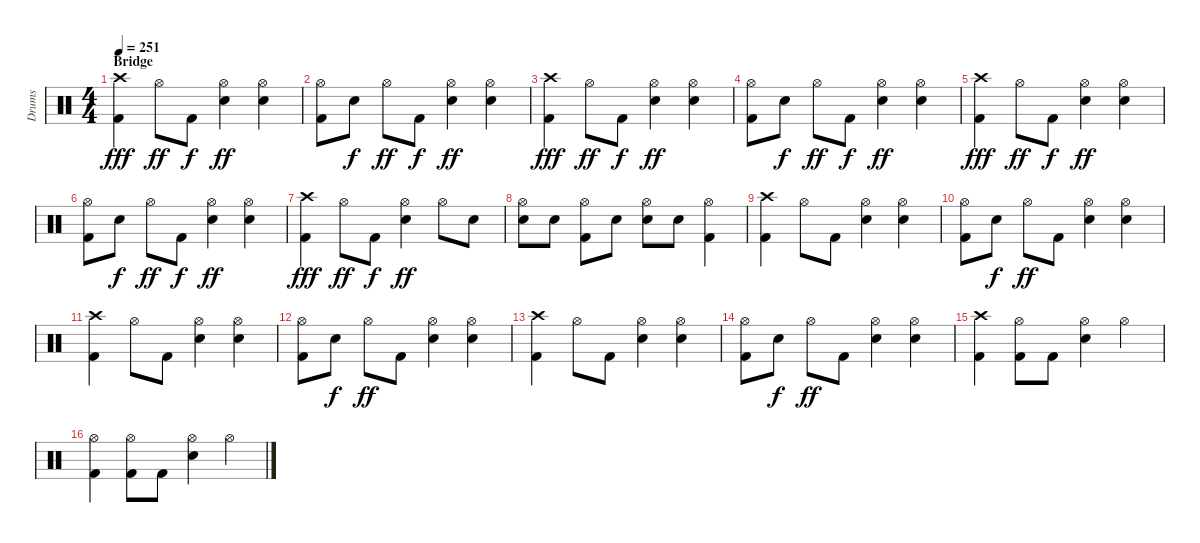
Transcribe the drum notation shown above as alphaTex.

\track ("Drums" "Drums") {instrument percussion}
\staff {score}
\articulation defaults
\ts (4 4)
\section ("" "Bridge")
\tempo 251
\clef neutral
\ks c
("Crash high (hit)" "Kick (hit) 2").4{dy fff} "Hi-Hat (open)".8{dy ff} "Kick (hit) 2".8{dy f} ("Hi-Hat (open)" "Electric Snare (hit)").4{dy ff} ("Hi-Hat (open)" "Electric Snare (hit)").4 |
("Hi-Hat (open)" "Kick (hit) 2").8 "Electric Snare (hit)".8{dy f} "Hi-Hat (open)".8{dy ff} "Kick (hit) 2".8{dy f} ("Hi-Hat (open)" "Electric Snare (hit)").4{dy ff} ("Hi-Hat (open)" "Electric Snare (hit)").4 |
("Crash high (hit)" "Kick (hit) 2").4{dy fff} "Hi-Hat (open)".8{dy ff} "Kick (hit) 2".8{dy f} ("Hi-Hat (open)" "Electric Snare (hit)").4{dy ff} ("Hi-Hat (open)" "Electric Snare (hit)").4 |
("Hi-Hat (open)" "Kick (hit) 2").8 "Electric Snare (hit)".8{dy f} "Hi-Hat (open)".8{dy ff} "Kick (hit) 2".8{dy f} ("Hi-Hat (open)" "Electric Snare (hit)").4{dy ff} ("Hi-Hat (open)" "Electric Snare (hit)").4 |
("Crash high (hit)" "Kick (hit) 2").4{dy fff} "Hi-Hat (open)".8{dy ff} "Kick (hit) 2".8{dy f} ("Hi-Hat (open)" "Electric Snare (hit)").4{dy ff} ("Hi-Hat (open)" "Electric Snare (hit)").4 |
("Hi-Hat (open)" "Kick (hit) 2").8 "Electric Snare (hit)".8{dy f} "Hi-Hat (open)".8{dy ff} "Kick (hit) 2".8{dy f} ("Hi-Hat (open)" "Electric Snare (hit)").4{dy ff} ("Hi-Hat (open)" "Electric Snare (hit)").4 |
("Crash high (hit)" "Kick (hit) 2").4{dy fff} "Hi-Hat (open)".8{dy ff} "Kick (hit) 2".8{dy f} ("Hi-Hat (open)" "Electric Snare (hit)").4{dy ff} "Hi-Hat (open)".8 "Electric Snare (hit)".8 |
("Hi-Hat (open)" "Electric Snare (hit)").8 "Electric Snare (hit)".8 ("Hi-Hat (open)" "Kick (hit) 2").8 "Electric Snare (hit)".8 ("Hi-Hat (open)" "Electric Snare (hit)").8 "Electric Snare (hit)".8 ("Hi-Hat (open)" "Kick (hit) 2").4 |
("Crash high (hit)" "Kick (hit) 2").4 "Hi-Hat (open)".8 "Kick (hit) 2".8 ("Hi-Hat (open)" "Electric Snare (hit)").4 ("Hi-Hat (open)" "Electric Snare (hit)").4 |
("Hi-Hat (open)" "Kick (hit) 2").8 "Electric Snare (hit)".8{dy f} "Hi-Hat (open)".8{dy ff} "Kick (hit) 2".8 ("Hi-Hat (open)" "Electric Snare (hit)").4 ("Hi-Hat (open)" "Electric Snare (hit)").4 |
("Crash high (hit)" "Kick (hit) 2").4 "Hi-Hat (open)".8 "Kick (hit) 2".8 ("Hi-Hat (open)" "Electric Snare (hit)").4 ("Hi-Hat (open)" "Electric Snare (hit)").4 |
("Hi-Hat (open)" "Kick (hit) 2").8 "Electric Snare (hit)".8{dy f} "Hi-Hat (open)".8{dy ff} "Kick (hit) 2".8 ("Hi-Hat (open)" "Electric Snare (hit)").4 ("Hi-Hat (open)" "Electric Snare (hit)").4 |
("Crash high (hit)" "Kick (hit) 2").4 "Hi-Hat (open)".8 "Kick (hit) 2".8 ("Hi-Hat (open)" "Electric Snare (hit)").4 ("Hi-Hat (open)" "Electric Snare (hit)").4 |
("Hi-Hat (open)" "Kick (hit) 2").8 "Electric Snare (hit)".8{dy f} "Hi-Hat (open)".8{dy ff} "Kick (hit) 2".8 ("Hi-Hat (open)" "Electric Snare (hit)").4 ("Hi-Hat (open)" "Electric Snare (hit)").4 |
("Crash high (hit)" "Kick (hit) 2").4 ("Hi-Hat (open)" "Kick (hit) 2").8 "Kick (hit) 2".8 ("Hi-Hat (open)" "Electric Snare (hit)").4 "Hi-Hat (open)".4 |
("Hi-Hat (open)" "Kick (hit) 2").4 ("Hi-Hat (open)" "Kick (hit) 2").8 "Kick (hit) 2".8 ("Hi-Hat (open)" "Electric Snare (hit)").4 "Hi-Hat (open)".4
